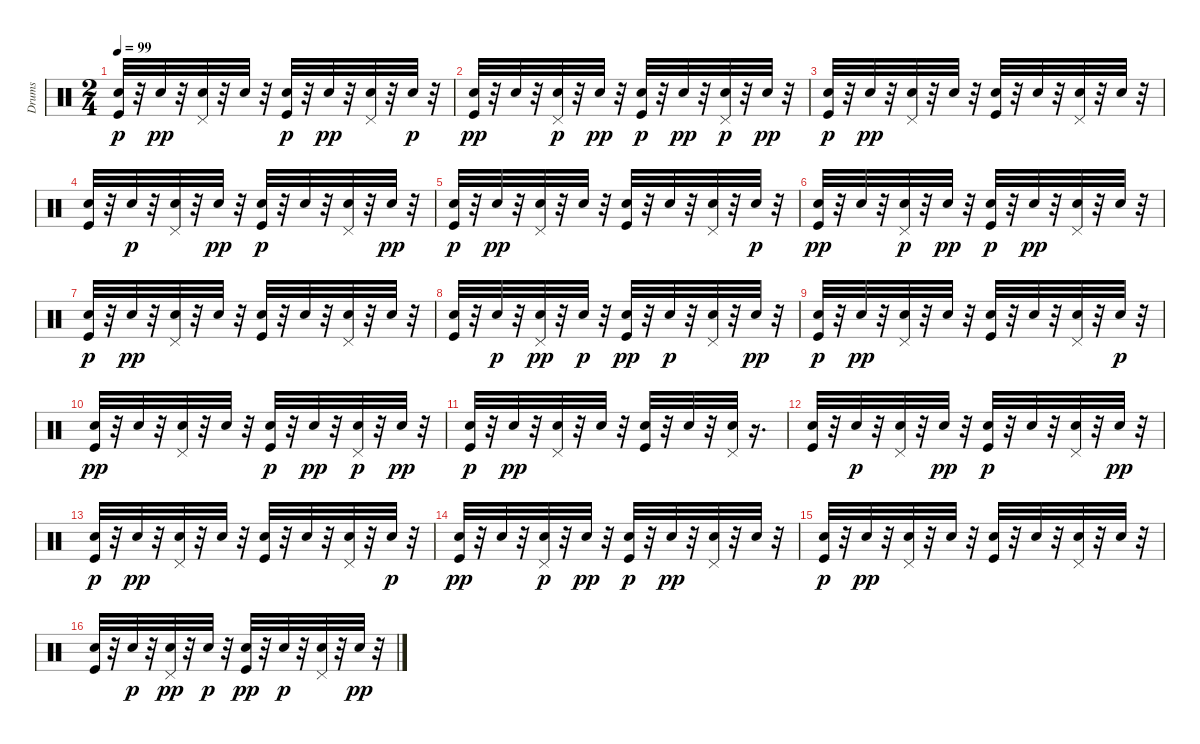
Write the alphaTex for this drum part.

\track ("Drums" "Drums") {instrument percussion}
\staff {score}
\articulation defaults
\ts (2 4)
\tempo 99
\clef neutral
\ks c
("Hand Clap (hit)" "Kick (hit)").32{dy p} r.32 "Snare (hit) 2".32{dy pp} r.32 ("Pedal Hi-Hat (hit)" "Snare (hit) 2").32 r.32 "Hand Clap (hit)".32 r.32 ("Hand Clap (hit)" "Kick (hit)").32{dy p} r.32 "Snare (hit) 2".32{dy pp} r.32 ("Pedal Hi-Hat (hit)" "Hand Clap (hit)").32 r.32 "Snare (hit) 2".32{dy p} r.32 |
("Kick (hit)" "Hand Clap (hit)").32{dy pp} r.32 "Snare (hit) 2".32 r.32 ("Pedal Hi-Hat (hit)" "Snare (hit) 2").32{dy p} r.32 "Snare (hit) 2".32{dy pp} r.32 ("Hand Clap (hit)" "Kick (hit)").32{dy p} r.32 "Snare (hit) 2".32{dy pp} r.32 ("Pedal Hi-Hat (hit)" "Snare (hit) 2").32{dy p} r.32 "Snare (hit) 2".32{dy pp} r.32 |
("Hand Clap (hit)" "Kick (hit)").32{dy p} r.32 "Snare (hit) 2".32{dy pp} r.32 ("Pedal Hi-Hat (hit)" "Snare (hit) 2").32 r.32 "Hand Clap (hit)".32 r.32 ("Kick (hit)" "Hand Clap (hit)").32 r.32 "Snare (hit) 2".32 r.32 ("Hand Clap (hit)" "Pedal Hi-Hat (hit)").32 r.32 "Snare (hit) 2".32 r.32 |
("Kick (hit)" "Hand Clap (hit)").32 r.32 "Snare (hit) 2".32{dy p} r.32 ("Pedal Hi-Hat (hit)" "Snare (hit) 2").32 r.32 "Snare (hit) 2".32{dy pp} r.32 ("Hand Clap (hit)" "Kick (hit)").32{dy p} r.32 "Snare (hit) 2".32 r.32 ("Pedal Hi-Hat (hit)" "Snare (hit) 2").32 r.32 "Snare (hit) 2".32{dy pp} r.32 |
("Hand Clap (hit)" "Kick (hit)").32{dy p} r.32 "Snare (hit) 2".32{dy pp} r.32 ("Pedal Hi-Hat (hit)" "Snare (hit) 2").32 r.32 "Hand Clap (hit)".32 r.32 ("Kick (hit)" "Hand Clap (hit)").32 r.32 "Snare (hit) 2".32 r.32 ("Pedal Hi-Hat (hit)" "Hand Clap (hit)").32 r.32 "Snare (hit) 2".32{dy p} r.32 |
("Kick (hit)" "Hand Clap (hit)").32{dy pp} r.32 "Snare (hit) 2".32 r.32 ("Pedal Hi-Hat (hit)" "Snare (hit) 2").32{dy p} r.32 "Hand Clap (hit)".32{dy pp} r.32 ("Hand Clap (hit)" "Kick (hit)").32{dy p} r.32 "Snare (hit) 2".32{dy pp} r.32 ("Pedal Hi-Hat (hit)" "Hand Clap (hit)").32 r.32 "Snare (hit) 2".32 r.32 |
("Hand Clap (hit)" "Kick (hit)").32{dy p} r.32 "Snare (hit) 2".32{dy pp} r.32 ("Pedal Hi-Hat (hit)" "Snare (hit) 2").32 r.32 "Snare (hit) 2".32 r.32 ("Kick (hit)" "Hand Clap (hit)").32 r.32 "Snare (hit) 2".32 r.32 ("Hand Clap (hit)" "Pedal Hi-Hat (hit)").32 r.32 "Snare (hit) 2".32 r.32 |
("Kick (hit)" "Hand Clap (hit)").32 r.32 "Snare (hit) 2".32{dy p} r.32 ("Pedal Hi-Hat (hit)" "Snare (hit) 2").32{dy pp} r.32 "Hand Clap (hit)".32{dy p} r.32 ("Kick (hit)" "Snare (hit) 2").32{dy pp} r.32 "Snare (hit) 2".32{dy p} r.32 ("Pedal Hi-Hat (hit)" "Snare (hit) 2").32 r.32 "Snare (hit) 2".32{dy pp} r.32 |
("Hand Clap (hit)" "Kick (hit)").32{dy p} r.32 "Snare (hit) 2".32{dy pp} r.32 ("Pedal Hi-Hat (hit)" "Snare (hit) 2").32 r.32 "Hand Clap (hit)".32 r.32 ("Kick (hit)" "Hand Clap (hit)").32 r.32 "Snare (hit) 2".32 r.32 ("Pedal Hi-Hat (hit)" "Hand Clap (hit)").32 r.32 "Snare (hit) 2".32{dy p} r.32 |
("Kick (hit)" "Hand Clap (hit)").32{dy pp} r.32 "Snare (hit) 2".32 r.32 ("Pedal Hi-Hat (hit)" "Snare (hit) 2").32 r.32 "Hand Clap (hit)".32 r.32 ("Kick (hit)" "Snare (hit) 2").32{dy p} r.32 "Snare (hit) 2".32{dy pp} r.32 ("Pedal Hi-Hat (hit)" "Snare (hit) 2").32{dy p} r.32 "Snare (hit) 2".32{dy pp} r.32 |
("Hand Clap (hit)" "Kick (hit)").32{dy p} r.32 "Snare (hit) 2".32{dy pp} r.32 ("Pedal Hi-Hat (hit)" "Snare (hit) 2").32 r.32 "Hand Clap (hit)".32 r.32 ("Kick (hit)" "Hand Clap (hit)").32 r.32 "Snare (hit) 2".32 r.32 ("Hand Clap (hit)" "Pedal Hi-Hat (hit)").32 r.16{d} |
("Kick (hit)" "Hand Clap (hit)").32 r.32 "Snare (hit) 2".32{dy p} r.32 ("Pedal Hi-Hat (hit)" "Snare (hit) 2").32 r.32 "Snare (hit) 2".32{dy pp} r.32 ("Hand Clap (hit)" "Kick (hit)").32{dy p} r.32 "Snare (hit) 2".32 r.32 ("Pedal Hi-Hat (hit)" "Snare (hit) 2").32 r.32 "Snare (hit) 2".32{dy pp} r.32 |
("Hand Clap (hit)" "Kick (hit)").32{dy p} r.32 "Snare (hit) 2".32{dy pp} r.32 ("Pedal Hi-Hat (hit)" "Snare (hit) 2").32 r.32 "Hand Clap (hit)".32 r.32 ("Kick (hit)" "Hand Clap (hit)").32 r.32 "Snare (hit) 2".32 r.32 ("Pedal Hi-Hat (hit)" "Hand Clap (hit)").32 r.32 "Snare (hit) 2".32{dy p} r.32 |
("Kick (hit)" "Hand Clap (hit)").32{dy pp} r.32 "Snare (hit) 2".32 r.32 ("Pedal Hi-Hat (hit)" "Snare (hit) 2").32{dy p} r.32 "Hand Clap (hit)".32{dy pp} r.32 ("Hand Clap (hit)" "Kick (hit)").32{dy p} r.32 "Snare (hit) 2".32{dy pp} r.32 ("Pedal Hi-Hat (hit)" "Hand Clap (hit)").32 r.32 "Snare (hit) 2".32 r.32 |
("Hand Clap (hit)" "Kick (hit)").32{dy p} r.32 "Snare (hit) 2".32{dy pp} r.32 ("Pedal Hi-Hat (hit)" "Snare (hit) 2").32 r.32 "Snare (hit) 2".32 r.32 ("Kick (hit)" "Hand Clap (hit)").32 r.32 "Snare (hit) 2".32 r.32 ("Hand Clap (hit)" "Pedal Hi-Hat (hit)").32 r.32 "Snare (hit) 2".32 r.32 |
("Kick (hit)" "Hand Clap (hit)").32 r.32 "Snare (hit) 2".32{dy p} r.32 ("Pedal Hi-Hat (hit)" "Snare (hit) 2").32{dy pp} r.32 "Hand Clap (hit)".32{dy p} r.32 ("Kick (hit)" "Snare (hit) 2").32{dy pp} r.32 "Snare (hit) 2".32{dy p} r.32 ("Pedal Hi-Hat (hit)" "Snare (hit) 2").32 r.32 "Snare (hit) 2".32{dy pp} r.32
